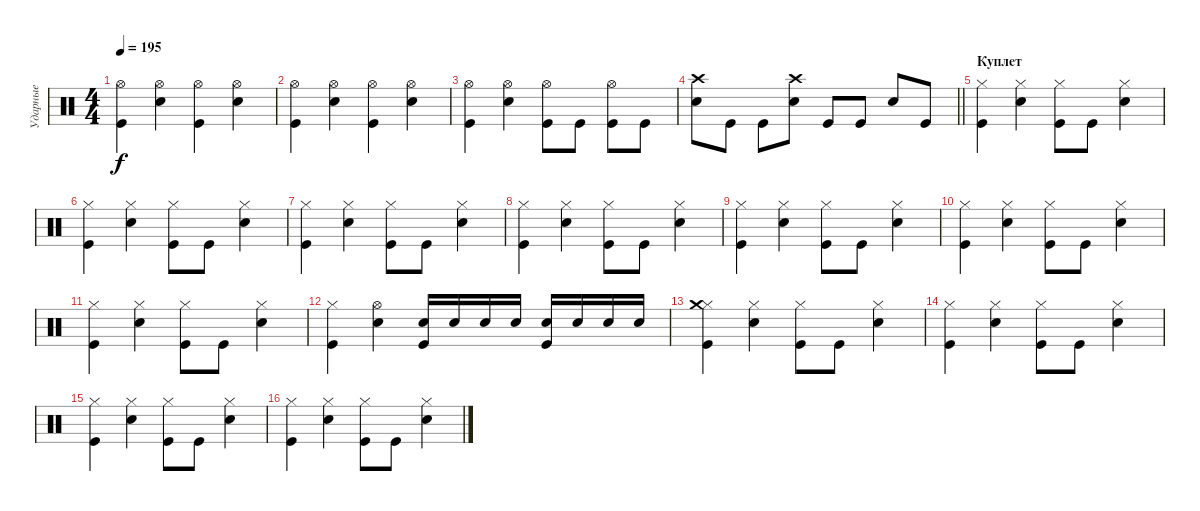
\track ("Ударные" "Ударные") {instrument percussion}
\staff {score}
\articulation defaults
\ts (4 4)
\tempo 195
\clef neutral
\ks c
("Hi-Hat (open)" "Kick (hit)").4{dy f} ("Hi-Hat (open)" "Electric Snare (hit)").4 ("Hi-Hat (open)" "Kick (hit)").4 ("Hi-Hat (open)" "Electric Snare (hit)").4 |
("Hi-Hat (open)" "Kick (hit)").4 ("Hi-Hat (open)" "Electric Snare (hit)").4 ("Hi-Hat (open)" "Kick (hit)").4 ("Hi-Hat (open)" "Electric Snare (hit)").4 |
("Hi-Hat (open)" "Kick (hit)").4 ("Hi-Hat (open)" "Electric Snare (hit)").4 ("Hi-Hat (open)" "Kick (hit)").8 "Kick (hit)".8 ("Hi-Hat (open)" "Kick (hit)").8 "Kick (hit)".8 |
\barLineRight lightlight
("Electric Snare (hit)" "Crash high (hit)").8 "Kick (hit)".8 "Kick (hit)".8 ("Crash high (hit)" "Electric Snare (hit)").8 "Kick (hit)".8 "Kick (hit)".8 "Electric Snare (hit)".8 "Kick (hit)".8 |
\section ("" "Куплет")
("Hi-Hat (closed)" "Kick (hit)").4 ("Hi-Hat (closed)" "Electric Snare (hit)").4 ("Hi-Hat (closed)" "Kick (hit)").8 "Kick (hit)".8 ("Hi-Hat (closed)" "Electric Snare (hit)").4 |
("Hi-Hat (closed)" "Kick (hit)").4 ("Hi-Hat (closed)" "Electric Snare (hit)").4 ("Hi-Hat (closed)" "Kick (hit)").8 "Kick (hit)".8 ("Hi-Hat (closed)" "Electric Snare (hit)").4 |
("Hi-Hat (closed)" "Kick (hit)").4 ("Hi-Hat (closed)" "Electric Snare (hit)").4 ("Hi-Hat (closed)" "Kick (hit)").8 "Kick (hit)".8 ("Hi-Hat (closed)" "Electric Snare (hit)").4 |
("Hi-Hat (closed)" "Kick (hit)").4 ("Hi-Hat (closed)" "Electric Snare (hit)").4 ("Hi-Hat (closed)" "Kick (hit)").8 "Kick (hit)".8 ("Hi-Hat (closed)" "Electric Snare (hit)").4 |
("Hi-Hat (closed)" "Kick (hit)").4 ("Hi-Hat (closed)" "Electric Snare (hit)").4 ("Hi-Hat (closed)" "Kick (hit)").8 "Kick (hit)".8 ("Hi-Hat (closed)" "Electric Snare (hit)").4 |
("Hi-Hat (closed)" "Kick (hit)").4 ("Hi-Hat (closed)" "Electric Snare (hit)").4 ("Hi-Hat (closed)" "Kick (hit)").8 "Kick (hit)".8 ("Hi-Hat (closed)" "Electric Snare (hit)").4 |
("Hi-Hat (closed)" "Kick (hit)").4 ("Hi-Hat (closed)" "Electric Snare (hit)").4 ("Hi-Hat (closed)" "Kick (hit)").8 "Kick (hit)".8 ("Hi-Hat (closed)" "Electric Snare (hit)").4 |
("Hi-Hat (closed)" "Kick (hit)").4 ("Hi-Hat (open)" "Electric Snare (hit)").4 ("Electric Snare (hit)" "Kick (hit)").16 "Electric Snare (hit)".16 "Electric Snare (hit)".16 "Electric Snare (hit)".16 ("Kick (hit)" "Electric Snare (hit)").16 "Electric Snare (hit)".16 "Electric Snare (hit)".16 "Electric Snare (hit)".16 |
("Hi-Hat (closed)" "Crash medium (hit)" "Kick (hit)").4 ("Hi-Hat (closed)" "Electric Snare (hit)").4 ("Hi-Hat (closed)" "Kick (hit)").8 "Kick (hit)".8 ("Electric Snare (hit)" "Hi-Hat (closed)").4 |
("Hi-Hat (closed)" "Kick (hit)").4 ("Hi-Hat (closed)" "Electric Snare (hit)").4 ("Hi-Hat (closed)" "Kick (hit)").8 "Kick (hit)".8 ("Hi-Hat (closed)" "Electric Snare (hit)").4 |
("Hi-Hat (closed)" "Kick (hit)").4 ("Hi-Hat (closed)" "Electric Snare (hit)").4 ("Hi-Hat (closed)" "Kick (hit)").8 "Kick (hit)".8 ("Hi-Hat (closed)" "Electric Snare (hit)").4 |
("Hi-Hat (closed)" "Kick (hit)").4 ("Hi-Hat (closed)" "Electric Snare (hit)").4 ("Hi-Hat (closed)" "Kick (hit)").8 "Kick (hit)".8 ("Hi-Hat (closed)" "Electric Snare (hit)").4
